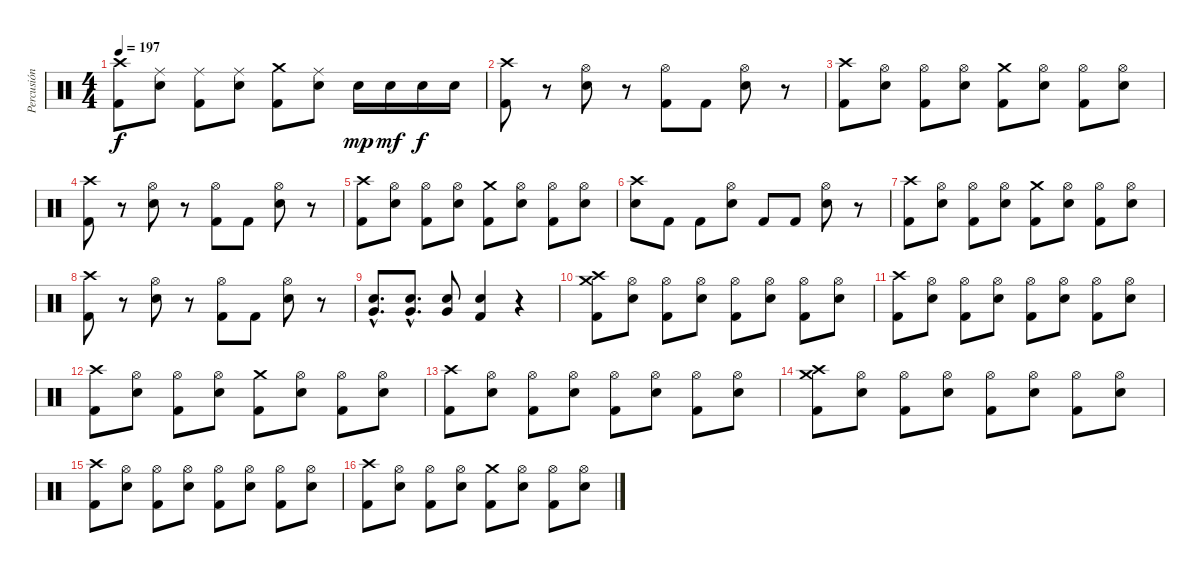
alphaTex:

\track ("Percusión" "Percusión") {instrument percussion}
\staff {score}
\articulation defaults
\ts (4 4)
\tempo 197
\clef neutral
\ks c
("Crash high (hit)" "Kick (hit) 2").8{dy f} ("Ride (middle)" "Electric Snare (hit)").8 ("Ride (middle)" "Kick (hit) 2").8 ("Ride (middle)" "Electric Snare (hit)").8 ("Crash medium (hit)" "Kick (hit) 2").8 ("Ride (middle)" "Electric Snare (hit)").8 "Electric Snare (hit)".16{dy mp} "Electric Snare (hit)".16{dy mf} "Electric Snare (hit)".16{dy f} "Electric Snare (hit)".16 |
("Crash high (hit)" "Kick (hit) 2").8 r.8 ("Hi-Hat (open)" "Electric Snare (hit)").8 r.8 ("Hi-Hat (open)" "Kick (hit) 2").8 "Kick (hit) 2".8 ("Hi-Hat (open)" "Electric Snare (hit)").8 r.8 |
("Crash high (hit)" "Kick (hit) 2").8 ("Hi-Hat (open)" "Electric Snare (hit)").8 ("Hi-Hat (open)" "Kick (hit) 2").8 ("Hi-Hat (open)" "Electric Snare (hit)").8 ("Crash medium (hit)" "Kick (hit) 2").8 ("Hi-Hat (open)" "Electric Snare (hit)").8 ("Hi-Hat (open)" "Kick (hit) 2").8 ("Hi-Hat (open)" "Electric Snare (hit)").8 |
("Crash high (hit)" "Kick (hit) 2").8 r.8 ("Hi-Hat (open)" "Electric Snare (hit)").8 r.8 ("Hi-Hat (open)" "Kick (hit) 2").8 "Kick (hit) 2".8 ("Hi-Hat (open)" "Electric Snare (hit)").8 r.8 |
("Crash high (hit)" "Kick (hit) 2").8 ("Hi-Hat (open)" "Electric Snare (hit)").8 ("Hi-Hat (open)" "Kick (hit) 2").8 ("Hi-Hat (open)" "Electric Snare (hit)").8 ("Crash medium (hit)" "Kick (hit) 2").8 ("Hi-Hat (open)" "Electric Snare (hit)").8 ("Hi-Hat (open)" "Kick (hit) 2").8 ("Hi-Hat (open)" "Electric Snare (hit)").8 |
("Crash high (hit)" "Electric Snare (hit)").8 "Kick (hit) 2".8 "Kick (hit) 2".8 ("Hi-Hat (open)" "Electric Snare (hit)").8 "Kick (hit) 2".8 "Kick (hit) 2".8 ("Hi-Hat (open)" "Electric Snare (hit)").8 r.8 |
("Crash high (hit)" "Kick (hit) 2").8 ("Hi-Hat (open)" "Electric Snare (hit)").8 ("Hi-Hat (open)" "Kick (hit) 2").8 ("Hi-Hat (open)" "Electric Snare (hit)").8 ("Crash medium (hit)" "Kick (hit) 2").8 ("Hi-Hat (open)" "Electric Snare (hit)").8 ("Hi-Hat (open)" "Kick (hit) 2").8 ("Hi-Hat (open)" "Electric Snare (hit)").8 |
("Crash high (hit)" "Kick (hit) 2").8 r.8 ("Hi-Hat (open)" "Electric Snare (hit)").8 r.8 ("Hi-Hat (open)" "Kick (hit) 2").8 "Kick (hit) 2".8 ("Hi-Hat (open)" "Electric Snare (hit)").8 r.8 |
("Very Low Tom (hit)"{hac} "Electric Snare (hit)"{hac}).8{d} ("Very Low Tom (hit)"{hac} "Electric Snare (hit)"{hac}).8{d} ("Very Low Tom (hit)" "Electric Snare (hit)").8 ("Electric Snare (hit)" "Kick (hit) 2").4 r.4 |
("Crash high (hit)" "Crash medium (hit)" "Kick (hit) 2").8 ("Hi-Hat (open)" "Electric Snare (hit)").8 ("Hi-Hat (open)" "Kick (hit) 2").8 ("Hi-Hat (open)" "Electric Snare (hit)").8 ("Hi-Hat (open)" "Kick (hit) 2").8 ("Hi-Hat (open)" "Electric Snare (hit)").8 ("Hi-Hat (open)" "Kick (hit) 2").8 ("Hi-Hat (open)" "Electric Snare (hit)").8 |
("Crash high (hit)" "Kick (hit) 2").8 ("Hi-Hat (open)" "Electric Snare (hit)").8 ("Hi-Hat (open)" "Kick (hit) 2").8 ("Hi-Hat (open)" "Electric Snare (hit)").8 ("Hi-Hat (open)" "Kick (hit) 2").8 ("Hi-Hat (open)" "Electric Snare (hit)").8 ("Hi-Hat (open)" "Kick (hit) 2").8 ("Hi-Hat (open)" "Electric Snare (hit)").8 |
("Crash high (hit)" "Kick (hit) 2").8 ("Hi-Hat (open)" "Electric Snare (hit)").8 ("Hi-Hat (open)" "Kick (hit) 2").8 ("Hi-Hat (open)" "Electric Snare (hit)").8 ("Crash medium (hit)" "Kick (hit) 2").8 ("Hi-Hat (open)" "Electric Snare (hit)").8 ("Hi-Hat (open)" "Kick (hit) 2").8 ("Hi-Hat (open)" "Electric Snare (hit)").8 |
("Crash high (hit)" "Kick (hit) 2").8 ("Hi-Hat (open)" "Electric Snare (hit)").8 ("Hi-Hat (open)" "Kick (hit) 2").8 ("Hi-Hat (open)" "Electric Snare (hit)").8 ("Hi-Hat (open)" "Kick (hit) 2").8 ("Hi-Hat (open)" "Electric Snare (hit)").8 ("Hi-Hat (open)" "Kick (hit) 2").8 ("Hi-Hat (open)" "Electric Snare (hit)").8 |
("Crash high (hit)" "Crash medium (hit)" "Kick (hit) 2").8 ("Hi-Hat (open)" "Electric Snare (hit)").8 ("Hi-Hat (open)" "Kick (hit) 2").8 ("Hi-Hat (open)" "Electric Snare (hit)").8 ("Hi-Hat (open)" "Kick (hit) 2").8 ("Hi-Hat (open)" "Electric Snare (hit)").8 ("Hi-Hat (open)" "Kick (hit) 2").8 ("Hi-Hat (open)" "Electric Snare (hit)").8 |
("Crash high (hit)" "Kick (hit) 2").8 ("Hi-Hat (open)" "Electric Snare (hit)").8 ("Hi-Hat (open)" "Kick (hit) 2").8 ("Hi-Hat (open)" "Electric Snare (hit)").8 ("Hi-Hat (open)" "Kick (hit) 2").8 ("Hi-Hat (open)" "Electric Snare (hit)").8 ("Hi-Hat (open)" "Kick (hit) 2").8 ("Hi-Hat (open)" "Electric Snare (hit)").8 |
("Crash high (hit)" "Kick (hit) 2").8 ("Hi-Hat (open)" "Electric Snare (hit)").8 ("Hi-Hat (open)" "Kick (hit) 2").8 ("Hi-Hat (open)" "Electric Snare (hit)").8 ("Crash medium (hit)" "Kick (hit) 2").8 ("Hi-Hat (open)" "Electric Snare (hit)").8 ("Hi-Hat (open)" "Kick (hit) 2").8 ("Hi-Hat (open)" "Electric Snare (hit)").8
